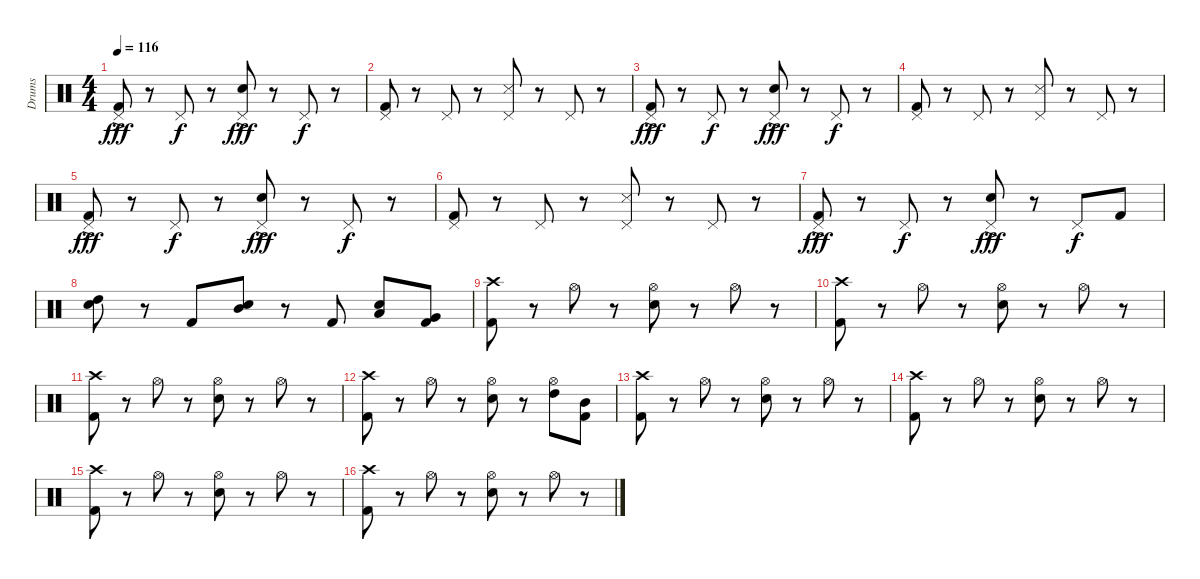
\track ("Drums" "Drums") {instrument percussion}
\staff {score}
\articulation defaults
\ts (4 4)
\tempo 116
\clef neutral
\ks c
("Kick (hit) 2"{ac} "Pedal Hi-Hat (hit)").8{dy fff} r.8 "Pedal Hi-Hat (hit)".8{dy f} r.8 ("Snare (hit) 2"{ac} "Pedal Hi-Hat (hit)").8{dy fff} r.8 "Pedal Hi-Hat (hit)".8{dy f} r.8 |
("Kick (hit) 2" "Pedal Hi-Hat (hit)").8 r.8 "Pedal Hi-Hat (hit)".8 r.8 ("Snare (side stick) 3" "Pedal Hi-Hat (hit)").8 r.8 "Pedal Hi-Hat (hit)".8 r.8 |
("Kick (hit) 2"{ac} "Pedal Hi-Hat (hit)").8{dy fff} r.8 "Pedal Hi-Hat (hit)".8{dy f} r.8 ("Snare (hit) 2"{ac} "Pedal Hi-Hat (hit)").8{dy fff} r.8 "Pedal Hi-Hat (hit)".8{dy f} r.8 |
("Kick (hit) 2" "Pedal Hi-Hat (hit)").8 r.8 "Pedal Hi-Hat (hit)".8 r.8 ("Snare (side stick) 3" "Pedal Hi-Hat (hit)").8 r.8 "Pedal Hi-Hat (hit)".8 r.8 |
("Kick (hit) 2"{ac} "Pedal Hi-Hat (hit)").8{dy fff} r.8 "Pedal Hi-Hat (hit)".8{dy f} r.8 ("Snare (hit) 2"{ac} "Pedal Hi-Hat (hit)").8{dy fff} r.8 "Pedal Hi-Hat (hit)".8{dy f} r.8 |
("Kick (hit) 2" "Pedal Hi-Hat (hit)").8 r.8 "Pedal Hi-Hat (hit)".8 r.8 ("Snare (side stick) 3" "Pedal Hi-Hat (hit)").8 r.8 "Pedal Hi-Hat (hit)".8 r.8 |
("Kick (hit) 2"{ac} "Pedal Hi-Hat (hit)").8{dy fff} r.8 "Pedal Hi-Hat (hit)".8{dy f} r.8 ("Snare (hit) 2"{ac} "Pedal Hi-Hat (hit)").8{dy fff} r.8 "Pedal Hi-Hat (hit)".8{dy f} "Kick (hit) 2".8 |
("Snare (hit) 2" "High Tom (hit)").8 r.8 "Kick (hit) 2".8 ("Snare (hit) 2" "Mid Tom (hit)").8 r.8 "Kick (hit) 2".8 ("Snare (hit) 2" "Low Tom (hit)").8 ("Kick (hit) 2" "Very Low Tom (hit)").8 |
("Crash high (hit)" "Kick (hit) 2").8 r.8 "Hi-Hat (open)".8 r.8 ("Snare (hit) 2" "Hi-Hat (open)").8 r.8 "Hi-Hat (open)".8 r.8 |
("Crash high (hit)" "Kick (hit) 2").8 r.8 "Hi-Hat (open)".8 r.8 ("Snare (hit) 2" "Hi-Hat (open)").8 r.8 "Hi-Hat (open)".8 r.8 |
("Crash high (hit)" "Kick (hit) 2").8 r.8 "Hi-Hat (open)".8 r.8 ("Snare (hit) 2" "Hi-Hat (open)").8 r.8 "Hi-Hat (open)".8 r.8 |
("Crash high (hit)" "Kick (hit) 2").8 r.8 "Hi-Hat (open)".8 r.8 ("Snare (hit) 2" "Hi-Hat (open)").8 r.8 ("Hi-Hat (open)" "High Tom (hit)").8 ("Kick (hit) 2" "Mid Tom (hit)").8 |
("Crash high (hit)" "Kick (hit) 2").8 r.8 "Hi-Hat (open)".8 r.8 ("Snare (hit) 2" "Hi-Hat (open)").8 r.8 "Hi-Hat (open)".8 r.8 |
("Crash high (hit)" "Kick (hit) 2").8 r.8 "Hi-Hat (open)".8 r.8 ("Snare (hit) 2" "Hi-Hat (open)").8 r.8 "Hi-Hat (open)".8 r.8 |
("Crash high (hit)" "Kick (hit) 2").8 r.8 "Hi-Hat (open)".8 r.8 ("Snare (hit) 2" "Hi-Hat (open)").8 r.8 "Hi-Hat (open)".8 r.8 |
("Crash high (hit)" "Kick (hit) 2").8 r.8 "Hi-Hat (open)".8 r.8 ("Snare (hit) 2" "Hi-Hat (open)").8 r.8 "Hi-Hat (open)".8 r.8
